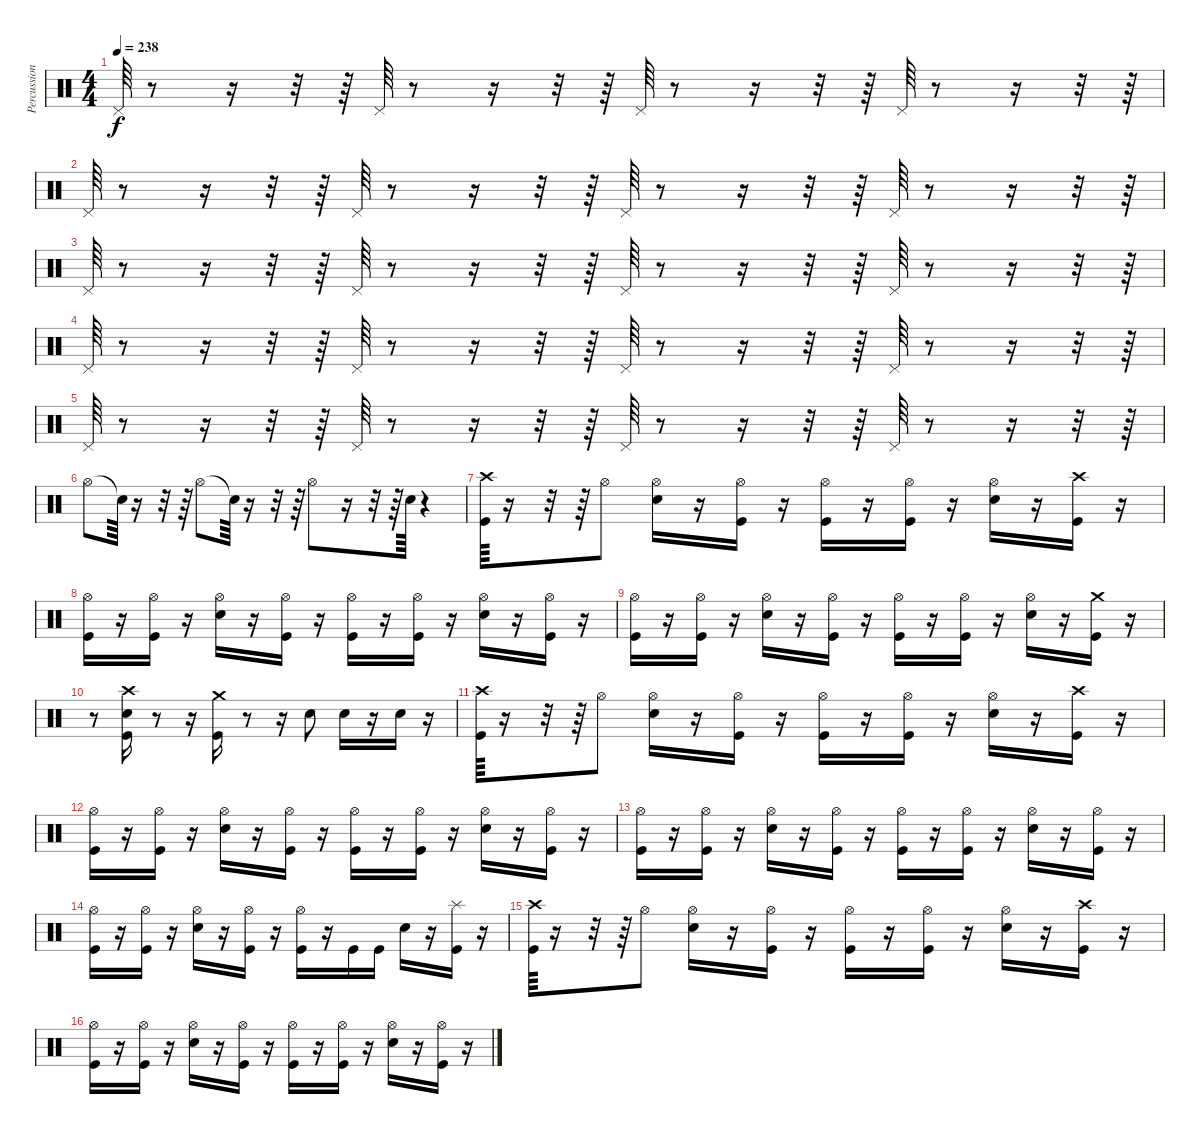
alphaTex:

\track ("Percussion" "Percussion") {instrument percussion}
\staff {score}
\articulation defaults
\ts (4 4)
\tempo 238
\clef neutral
\ks c "Pedal Hi-Hat (hit)".64{dy f}
r.8 r.16 r.32 r.64 "Pedal Hi-Hat (hit)".64 r.8 r.16 r.32 r.64 "Pedal Hi-Hat (hit)".64 r.8 r.16 r.32 r.64 "Pedal Hi-Hat (hit)".64 r.8 r.16 r.32 r.64 |
"Pedal Hi-Hat (hit)".64 r.8 r.16 r.32 r.64 "Pedal Hi-Hat (hit)".64 r.8 r.16 r.32 r.64 "Pedal Hi-Hat (hit)".64 r.8 r.16 r.32 r.64 "Pedal Hi-Hat (hit)".64 r.8 r.16 r.32 r.64 |
"Pedal Hi-Hat (hit)".64 r.8 r.16 r.32 r.64 "Pedal Hi-Hat (hit)".64 r.8 r.16 r.32 r.64 "Pedal Hi-Hat (hit)".64 r.8 r.16 r.32 r.64 "Pedal Hi-Hat (hit)".64 r.8 r.16 r.32 r.64 |
"Pedal Hi-Hat (hit)".64 r.8 r.16 r.32 r.64 "Pedal Hi-Hat (hit)".64 r.8 r.16 r.32 r.64 "Pedal Hi-Hat (hit)".64 r.8 r.16 r.32 r.64 "Pedal Hi-Hat (hit)".64 r.8 r.16 r.32 r.64 |
"Pedal Hi-Hat (hit)".64 r.8 r.16 r.32 r.64 "Pedal Hi-Hat (hit)".64 r.8 r.16 r.32 r.64 "Pedal Hi-Hat (hit)".64 r.8 r.16 r.32 r.64 "Pedal Hi-Hat (hit)".64 r.8 r.16 r.32 r.64 |
"Hi-Hat (open)".8 "Snare (hit)"{t}.64 r.16 r.32 r.64 "Hi-Hat (open)".8 "Snare (hit)"{t}.64 r.16 r.32 r.64 "Hi-Hat (open)".8 r.16 r.32 r.64 "Snare (hit) 2".64 r.4 |
("Kick (hit)" "Crash high (hit)").64 r.16 r.32 r.64 "Hi-Hat (open)".8 ("Snare (hit) 2" "Hi-Hat (open)").16 r.16 ("Hi-Hat (open)" "Kick (hit)").16 r.16 ("Hi-Hat (open)" "Kick (hit)").16 r.16 ("Kick (hit)" "Hi-Hat (open)").16 r.16 ("Snare (hit) 2" "Hi-Hat (open)").16 r.16 ("Kick (hit)" "Crash high (hit)").16 r.16 |
("Hi-Hat (open)" "Kick (hit)").16 r.16 ("Hi-Hat (open)" "Kick (hit)").16 r.16 ("Snare (hit) 2" "Hi-Hat (open)").16 r.16 ("Hi-Hat (open)" "Kick (hit)").16 r.16 ("Hi-Hat (open)" "Kick (hit)").16 r.16 ("Kick (hit)" "Hi-Hat (open)").16 r.16 ("Snare (hit) 2" "Hi-Hat (open)").16 r.16 ("Kick (hit)" "Hi-Hat (open)").16 r.16 |
("Kick (hit)" "Hi-Hat (open)").16 r.16 ("Hi-Hat (open)" "Kick (hit)").16 r.16 ("Snare (hit) 2" "Hi-Hat (open)").16 r.16 ("Hi-Hat (open)" "Kick (hit)").16 r.16 ("Hi-Hat (open)" "Kick (hit)").16 r.16 ("Kick (hit)" "Hi-Hat (open)").16 r.16 ("Snare (hit) 2" "Hi-Hat (open)").16 r.16 ("Kick (hit)" "Crash medium (hit)").16 r.16 |
r.8 ("Kick (hit)" "Snare (hit) 2" "Crash high (hit)").16 r.8 r.16 ("Kick (hit)" "Crash medium (hit)").16 r.8 r.16 "Snare (hit) 2".8 "Snare (hit) 2".16 r.16 "Snare (hit) 2".16 r.16 |
("Crash high (hit)" "Kick (hit)").64 r.16 r.32 r.64 "Hi-Hat (open)".8 ("Snare (hit) 2" "Hi-Hat (open)").16 r.16 ("Hi-Hat (open)" "Kick (hit)").16 r.16 ("Hi-Hat (open)" "Kick (hit)").16 r.16 ("Kick (hit)" "Hi-Hat (open)").16 r.16 ("Snare (hit) 2" "Hi-Hat (open)").16 r.16 ("Kick (hit)" "Crash high (hit)").16 r.16 |
("Hi-Hat (open)" "Kick (hit)").16 r.16 ("Hi-Hat (open)" "Kick (hit)").16 r.16 ("Snare (hit) 2" "Hi-Hat (open)").16 r.16 ("Hi-Hat (open)" "Kick (hit)").16 r.16 ("Hi-Hat (open)" "Kick (hit)").16 r.16 ("Kick (hit)" "Hi-Hat (open)").16 r.16 ("Snare (hit) 2" "Hi-Hat (open)").16 r.16 ("Kick (hit)" "Hi-Hat (open)").16 r.16 |
("Kick (hit)" "Hi-Hat (open)").16 r.16 ("Hi-Hat (open)" "Kick (hit)").16 r.16 ("Snare (hit) 2" "Hi-Hat (open)").16 r.16 ("Hi-Hat (open)" "Kick (hit)").16 r.16 ("Hi-Hat (open)" "Kick (hit)").16 r.16 ("Kick (hit)" "Hi-Hat (open)").16 r.16 ("Hi-Hat (open)" "Snare (hit) 2").16 r.16 ("Hi-Hat (open)" "Kick (hit)").16 r.16 |
("Hi-Hat (open)" "Kick (hit)").16 r.16 ("Kick (hit)" "Hi-Hat (open)").16 r.16 ("Hi-Hat (open)" "Snare (hit) 2").16 r.16 ("Hi-Hat (open)" "Kick (hit)").16 r.16 ("Hi-Hat (open)" "Kick (hit)").16 r.16 "Kick (hit)".16 "Kick (hit)".16 "Snare (hit) 2".16 r.16 ("Kick (hit)" "Splash (hit)").16 r.16 |
("Kick (hit)" "Crash high (hit)").64 r.16 r.32 r.64 "Hi-Hat (open)".8 ("Snare (hit) 2" "Hi-Hat (open)").16 r.16 ("Hi-Hat (open)" "Kick (hit)").16 r.16 ("Hi-Hat (open)" "Kick (hit)").16 r.16 ("Kick (hit)" "Hi-Hat (open)").16 r.16 ("Snare (hit) 2" "Hi-Hat (open)").16 r.16 ("Kick (hit)" "Crash high (hit)").16 r.16 |
("Hi-Hat (open)" "Kick (hit)").16 r.16 ("Hi-Hat (open)" "Kick (hit)").16 r.16 ("Snare (hit) 2" "Hi-Hat (open)").16 r.16 ("Hi-Hat (open)" "Kick (hit)").16 r.16 ("Hi-Hat (open)" "Kick (hit)").16 r.16 ("Kick (hit)" "Hi-Hat (open)").16 r.16 ("Snare (hit) 2" "Hi-Hat (open)").16 r.16 ("Kick (hit)" "Hi-Hat (open)").16 r.16
